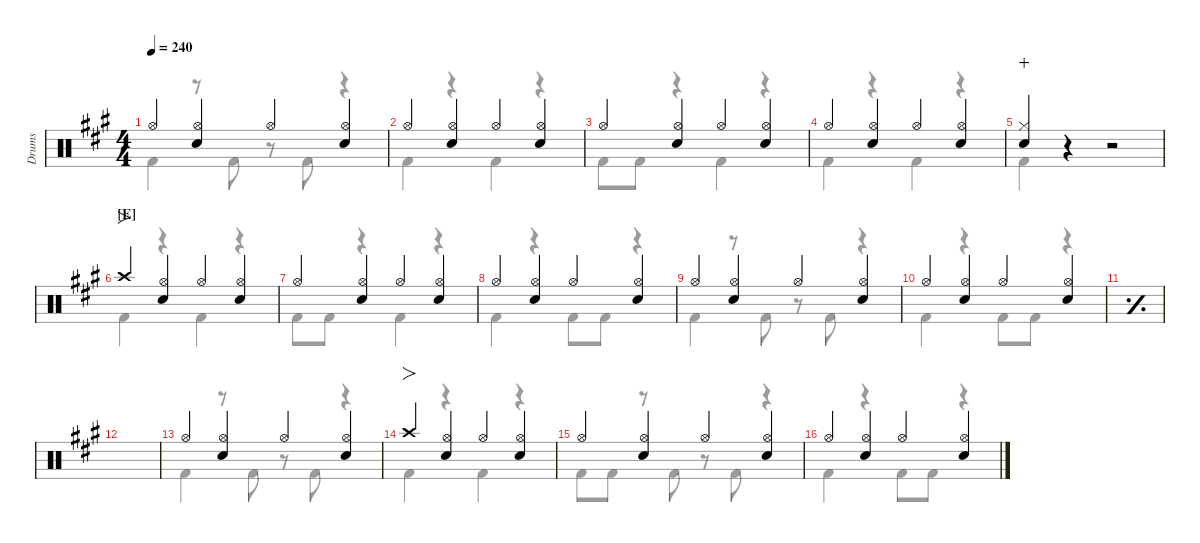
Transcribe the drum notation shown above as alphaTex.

\defaultSystemsLayout 4
\hideDynamics
\bracketExtendMode nobrackets
\otherSystemsTrackNameOrientation horizontal
\track ("Drums" "Drums") {defaultSystemsLayout 4 instrument percussion}
\staff {score}
\articulation defaults
\voice
\ts (4 4)
\tempo 240
\clef neutral
\scale
0.977842
\ks a "Hi-Hat (open)"{acc forcenatural}.4{dy f beam Up}
("Hi-Hat (open)"{acc forcenatural} "Snare (hit) 2"{acc forcenatural}).4{beam Up} "Hi-Hat (open)"{acc forcenatural}.4{beam Up} ("Hi-Hat (open)"{acc forcenatural} "Snare (hit) 2"{acc forcenatural}).4{beam Up} |
\scale
1.06205 "Hi-Hat (open)"{acc forcenatural}.4{beam Up} ("Hi-Hat (open)"{acc forcenatural} "Snare (hit) 2"{acc forcenatural}).4{beam Up} "Hi-Hat (open)"{acc forcenatural}.4{beam Up} ("Hi-Hat (open)"{acc forcenatural} "Snare (hit) 2"{acc forcenatural}).4{beam Up} |
\scale
0.973421 "Hi-Hat (open)"{acc forcenatural}.4{beam Up} ("Hi-Hat (open)"{acc forcenatural} "Snare (hit) 2"{acc forcenatural}).4{beam Up} "Hi-Hat (open)"{acc forcenatural}.4{beam Up} ("Hi-Hat (open)"{acc forcenatural} "Snare (hit) 2"{acc forcenatural}).4{beam Up} |
\scale
0.973421 "Hi-Hat (open)"{acc forcenatural}.4{beam Up} ("Hi-Hat (open)"{acc forcenatural} "Snare (hit) 2"{acc forcenatural}).4{beam Up} "Hi-Hat (open)"{acc forcenatural}.4{beam Up} ("Hi-Hat (open)"{acc forcenatural} "Snare (hit) 2"{acc forcenatural}).4{beam Up} |
\scale
0.991105 ("Hi-Hat (closed)"{acc forcenatural} "Snare (hit) 2"{acc forcenatural}).4{wahc beam Up} r.4{beam Up} r.2{beam Up} |
\section ("E" "")
\scale
1.06647 "Crash high (hit)"{acc forcenatural}.4{fo beam Up} ("Hi-Hat (open)"{acc forcenatural} "Snare (hit) 2"{acc forcenatural}).4{beam Up} "Hi-Hat (open)"{acc forcenatural}.4{beam Up} ("Hi-Hat (open)"{acc forcenatural} "Snare (hit) 2"{acc forcenatural}).4{beam Up} |
\scale
0.977842 "Hi-Hat (open)"{acc forcenatural}.4{beam Up} ("Hi-Hat (open)"{acc forcenatural} "Snare (hit) 2"{acc forcenatural}).4{beam Up} "Hi-Hat (open)"{acc forcenatural}.4{beam Up} ("Hi-Hat (open)"{acc forcenatural} "Snare (hit) 2"{acc forcenatural}).4{beam Up} |
\scale
0.977842 "Hi-Hat (open)"{acc forcenatural}.4{beam Up} ("Hi-Hat (open)"{acc forcenatural} "Snare (hit) 2"{acc forcenatural}).4{beam Up} "Hi-Hat (open)"{acc forcenatural}.4{beam Up} ("Hi-Hat (open)"{acc forcenatural} "Snare (hit) 2"{acc forcenatural}).4{beam Up} |
\scale
0.977842 "Hi-Hat (open)"{acc forcenatural}.4{beam Up} ("Hi-Hat (open)"{acc forcenatural} "Snare (hit) 2"{acc forcenatural}).4{beam Up} "Hi-Hat (open)"{acc forcenatural}.4{beam Up} ("Hi-Hat (open)"{acc forcenatural} "Snare (hit) 2"{acc forcenatural}).4{beam Up} |
\scale
1.06647 "Hi-Hat (open)"{acc forcenatural}.4{beam Up} ("Hi-Hat (open)"{acc forcenatural} "Snare (hit) 2"{acc forcenatural}).4{beam Up} "Hi-Hat (open)"{acc forcenatural}.4{beam Up} ("Hi-Hat (open)"{acc forcenatural} "Snare (hit) 2"{acc forcenatural}).4{beam Up} |
\simile simple
\scale
0.977842 |
\scale
0.977842 |
\simile none
\scale
0.977842 "Hi-Hat (open)"{acc forcenatural}.4{beam Up} ("Hi-Hat (open)"{acc forcenatural} "Snare (hit) 2"{acc forcenatural}).4{beam Up} "Hi-Hat (open)"{acc forcenatural}.4{beam Up} ("Hi-Hat (open)"{acc forcenatural} "Snare (hit) 2"{acc forcenatural}).4{beam Up} |
\scale
1.06647 "Crash high (hit)"{acc forcenatural}.4{fo beam Up} ("Hi-Hat (open)"{acc forcenatural} "Snare (hit) 2"{acc forcenatural}).4{beam Up} "Hi-Hat (open)"{acc forcenatural}.4{beam Up} ("Hi-Hat (open)"{acc forcenatural} "Snare (hit) 2"{acc forcenatural}).4{beam Up} |
\scale
0.977842 "Hi-Hat (open)"{acc forcenatural}.4{beam Up} ("Hi-Hat (open)"{acc forcenatural} "Snare (hit) 2"{acc forcenatural}).4{beam Up} "Hi-Hat (open)"{acc forcenatural}.4{beam Up} ("Hi-Hat (open)"{acc forcenatural} "Snare (hit) 2"{acc forcenatural}).4{beam Up} |
\scale
0.977842 "Hi-Hat (open)"{acc forcenatural}.4{beam Up} ("Hi-Hat (open)"{acc forcenatural} "Snare (hit) 2"{acc forcenatural}).4{beam Up} "Hi-Hat (open)"{acc forcenatural}.4{beam Up} ("Hi-Hat (open)"{acc forcenatural} "Snare (hit) 2"{acc forcenatural}).4{beam Up}
\voice
\clef neutral
\ottava regular
\simile none
\scale
0.977842
\ks a "Kick (hit) 2"{acc forcenatural}.4{dy f beam Down}
r.8{beam Down} "Kick (hit) 2"{acc forcenatural}.8{beam Down} r.8{beam Down} "Kick (hit) 2"{acc forcenatural}.8{beam Down} r.4{beam Down} |
\scale
1.06205 "Kick (hit) 2"{acc forcenatural}.4{beam Down} r.4{beam Down} "Kick (hit) 2"{acc forcenatural}.4{beam Down} r.4{beam Down} |
\scale
0.973421 "Kick (hit) 2"{acc forcenatural}.8{beam Down} "Kick (hit) 2"{acc forcenatural}.8{beam Down} r.4{beam Down} "Kick (hit) 2"{acc forcenatural}.4{beam Down} r.4{beam Down} |
\scale
0.973421 "Kick (hit) 2"{acc forcenatural}.4{beam Down} r.4{beam Down} "Kick (hit) 2"{acc forcenatural}.4{beam Down} r.4{beam Down} |
\scale
0.991105 "Kick (hit) 2"{acc forcenatural}.4{beam Down} r.4{beam Down} r.2{beam Down} |
\scale
1.06647 "Kick (hit) 2"{acc forcenatural}.4{beam Down} r.4{beam Down} "Kick (hit) 2"{acc forcenatural}.4{beam Down} r.4{beam Down} |
\scale
0.977842 "Kick (hit) 2"{acc forcenatural}.8{beam Down} "Kick (hit) 2"{acc forcenatural}.8{beam Down} r.4{beam Down} "Kick (hit) 2"{acc forcenatural}.4{beam Down} r.4{beam Down} |
\scale
0.977842 "Kick (hit) 2"{acc forcenatural}.4{beam Down} r.4{beam Down} "Kick (hit) 2"{acc forcenatural}.8{beam Down} "Kick (hit) 2"{acc forcenatural}.8{beam Down} r.4{beam Down} |
\scale
0.977842 "Kick (hit) 2"{acc forcenatural}.4{beam Down} r.8{beam Down} "Kick (hit) 2"{acc forcenatural}.8{beam Down} r.8{beam Down} "Kick (hit) 2"{acc forcenatural}.8{beam Down} r.4{beam Down} |
\scale
1.06647 "Kick (hit) 2"{acc forcenatural}.4{beam Down} r.4{beam Down} "Kick (hit) 2"{acc forcenatural}.8{beam Down} "Kick (hit) 2"{acc forcenatural}.8{beam Down} r.4{beam Down} |
\simile simple
\scale
0.977842 |
\scale
0.977842 |
\simile none
\scale
0.977842 "Kick (hit) 2"{acc forcenatural}.4{beam Down} r.8{beam Down} "Kick (hit) 2"{acc forcenatural}.8{beam Down} r.8{beam Down} "Kick (hit) 2"{acc forcenatural}.8{beam Down} r.4{beam Down} |
\scale
1.06647 "Kick (hit) 2"{acc forcenatural}.4{beam Down} r.4{beam Down} "Kick (hit) 2"{acc forcenatural}.4{beam Down} r.4{beam Down} |
\scale
0.977842 "Kick (hit) 2"{acc forcenatural}.8{beam Down} "Kick (hit) 2"{acc forcenatural}.8{beam Down} r.8{beam Down} "Kick (hit) 2"{acc forcenatural}.8{beam Down} r.8{beam Down} "Kick (hit) 2"{acc forcenatural}.8{beam Down} r.4{beam Down} |
\scale
0.977842 "Kick (hit) 2"{acc forcenatural}.4{beam Down} r.4{beam Down} "Kick (hit) 2"{acc forcenatural}.8{beam Down} "Kick (hit) 2"{acc forcenatural}.8{beam Down} r.4{beam Down}
